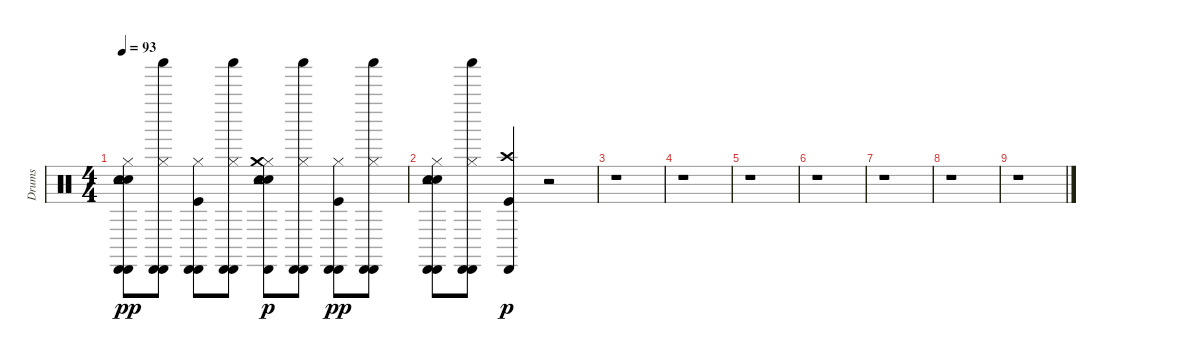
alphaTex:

\track ("Drums" "Drums") {instrument percussion}
\staff {score}
\articulation defaults
\ts (4 4)
\tempo 93
\clef neutral
\ks c
("Hand Clap (hit)" "Electric Snare (hit)" "Hi-Hat (closed)" "Tambourine (hit)" "Cabasa (hit)" "Cabasa (hit)").8{dy pp} ("Hi-Hat (closed)" "Cabasa (hit)" "Shaker (hit)" "Cabasa (hit)").8 ("Kick (hit)" "Hi-Hat (closed)" "Cabasa (hit)" "Cabasa (hit)").8 ("Hi-Hat (closed)" "Cabasa (hit)" "Shaker (hit)" "Cabasa (hit)").8 ("Hand Clap (hit)" "Electric Snare (hit)" "Hi-Hat (closed)" "Tambourine (hit)" "Crash medium (hit)" "Cabasa (hit)").8{dy p} ("Hi-Hat (closed)" "Cabasa (hit)" "Shaker (hit)" "Cabasa (hit)").8 ("Kick (hit)" "Hi-Hat (closed)" "Cabasa (hit)" "Cabasa (hit)").8{dy pp} ("Hi-Hat (closed)" "Cabasa (hit)" "Shaker (hit)" "Cabasa (hit)").8 |
("Hand Clap (hit)" "Electric Snare (hit)" "Hi-Hat (closed)" "Tambourine (hit)" "Cabasa (hit)" "Cabasa (hit)").8 ("Hi-Hat (closed)" "Cabasa (hit)" "Shaker (hit)" "Cabasa (hit)").8 ("Kick (hit)" "Crash high (hit)" "Cabasa (hit)").4{dy p} r.2 |
r.1 |
r.1 |
r.1 |
r.1 |
r.1 |
r.1 |
r.1
